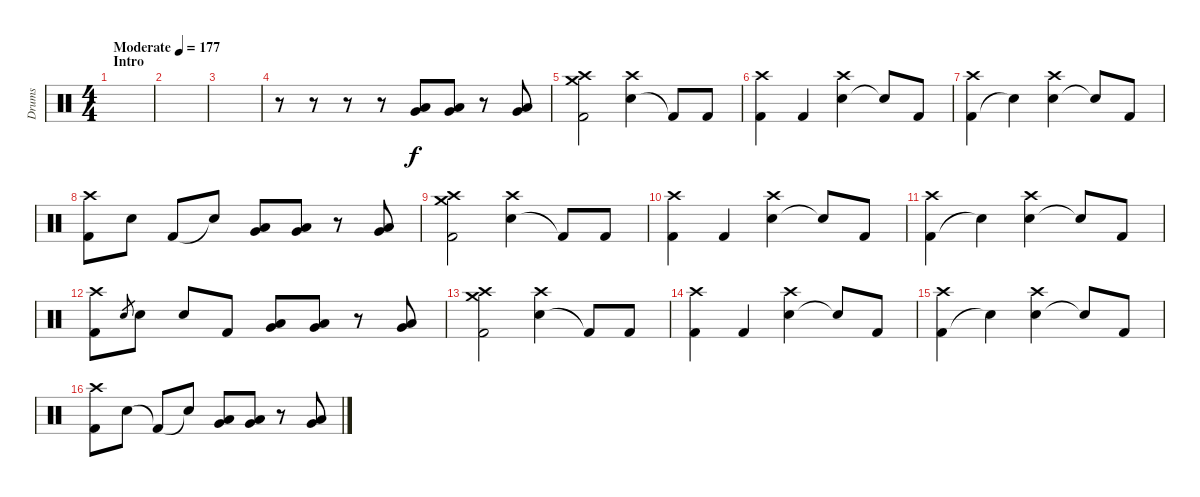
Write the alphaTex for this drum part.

\track ("Drums" "Drums") {instrument percussion}
\staff {score}
\articulation defaults
\ts (4 4)
\section ("" "Intro")
\tempo (177 "Moderate")
\clef neutral
\ks c
|
|
|
r.8 r.8 r.8 r.8 ("Very Low Tom (hit)" "Low Floor Tom (hit)").8 ("Very Low Tom (hit)" "Low Floor Tom (hit)").8 r.8 ("Very Low Tom (hit)" "Low Floor Tom (hit)").8 |
("Kick (hit) 2" "Crash medium (hit)" "Crash high (hit)").2 ("Electric Snare (hit)" "Crash high (hit)").4 "Kick (hit) 2"{t}.8 "Kick (hit) 2".8 |
("Kick (hit) 2" "Crash high (hit)").4 "Kick (hit) 2".4 ("Electric Snare (hit)" "Crash high (hit)").4 "Snare (hit)"{t}.8 "Kick (hit) 2".8 |
("Kick (hit) 2" "Crash high (hit)").4 "Snare (hit)"{t}.4 ("Electric Snare (hit)" "Crash high (hit)").4 "Snare (hit)"{t}.8 "Kick (hit) 2".8 |
("Kick (hit) 2" "Crash high (hit)").8 "Electric Snare (hit)".8 "Kick (hit) 2".8 "Snare (hit)"{t}.8 ("Very Low Tom (hit)" "Low Floor Tom (hit)").8 ("Very Low Tom (hit)" "Low Floor Tom (hit)").8 r.8 ("Very Low Tom (hit)" "Low Floor Tom (hit)").8 |
("Kick (hit) 2" "Crash medium (hit)" "Crash high (hit)").2 ("Electric Snare (hit)" "Crash high (hit)").4 "Kick (hit) 2"{t}.8 "Kick (hit) 2".8 |
("Kick (hit) 2" "Crash high (hit)").4 "Kick (hit) 2".4 ("Electric Snare (hit)" "Crash high (hit)").4 "Snare (hit)"{t}.8 "Kick (hit) 2".8 |
("Kick (hit) 2" "Crash high (hit)").4 "Snare (hit)"{t}.4 ("Electric Snare (hit)" "Crash high (hit)").4 "Snare (hit)"{t}.8 "Kick (hit) 2".8 |
("Kick (hit) 2" "Crash high (hit)").8 "Electric Snare (hit)".8{gr} "Electric Snare (hit)".8 "Electric Snare (hit)".8 "Kick (hit) 2".8 ("Very Low Tom (hit)" "Low Floor Tom (hit)").8 ("Very Low Tom (hit)" "Low Floor Tom (hit)").8 r.8 ("Very Low Tom (hit)" "Low Floor Tom (hit)").8 |
("Kick (hit) 2" "Crash medium (hit)" "Crash high (hit)").2 ("Electric Snare (hit)" "Crash high (hit)").4 "Kick (hit) 2"{t}.8 "Kick (hit) 2".8 |
("Kick (hit) 2" "Crash high (hit)").4 "Kick (hit) 2".4 ("Electric Snare (hit)" "Crash high (hit)").4 "Snare (hit)"{t}.8 "Kick (hit) 2".8 |
("Kick (hit) 2" "Crash high (hit)").4 "Snare (hit)"{t}.4 ("Electric Snare (hit)" "Crash high (hit)").4 "Snare (hit)"{t}.8 "Kick (hit) 2".8 |
("Kick (hit) 2" "Crash high (hit)").8 "Electric Snare (hit)".8 "Kick (hit) 2"{t}.8 "Snare (hit)"{t}.8 ("Very Low Tom (hit)" "Low Floor Tom (hit)").8 ("Very Low Tom (hit)" "Low Floor Tom (hit)").8 r.8 ("Very Low Tom (hit)" "Low Floor Tom (hit)").8
